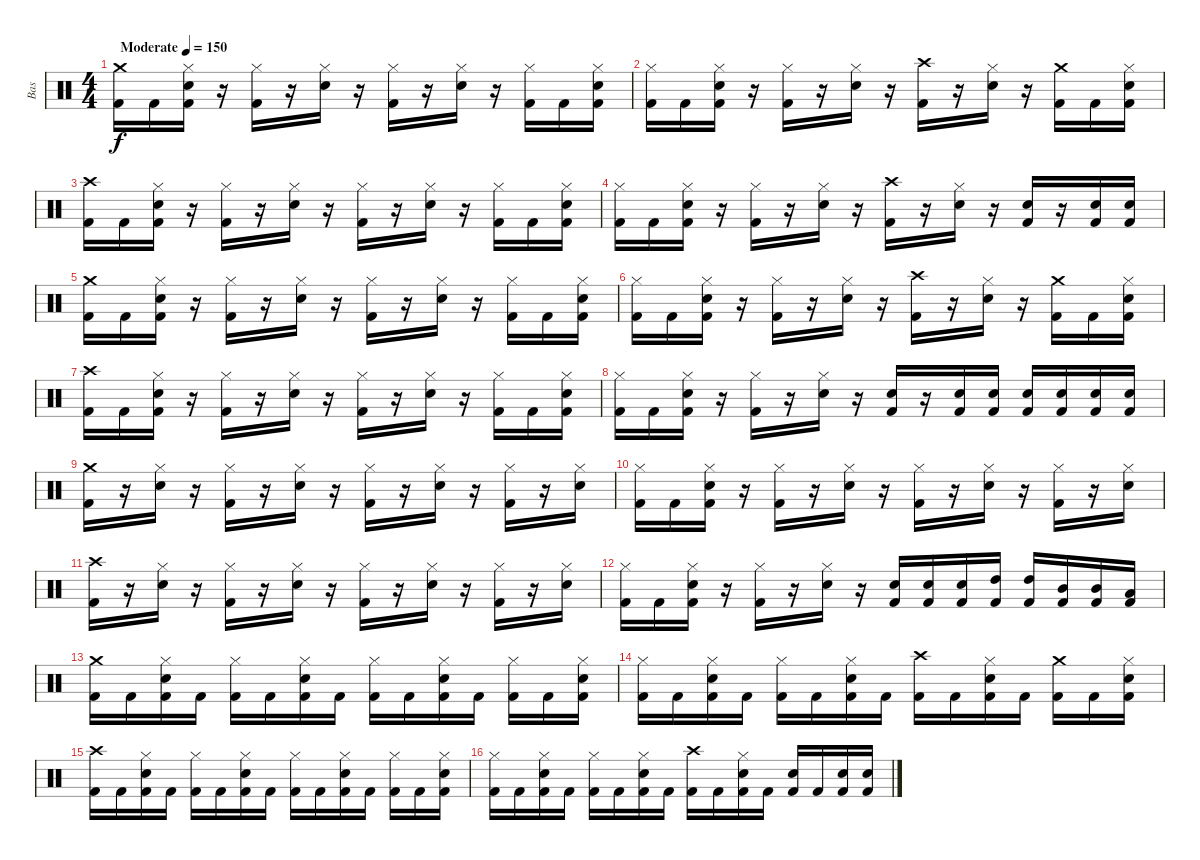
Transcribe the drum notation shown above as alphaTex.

\track ("Bas" "Bas") {instrument percussion}
\staff {score}
\articulation defaults
\ts (4 4)
\tempo (150 "Moderate")
\clef neutral
\ks c
("Crash medium (hit)" "Kick (hit) 2").16{dy f} "Kick (hit) 2".16 ("Hi-Hat (closed)" "Snare (hit) 2" "Kick (hit) 2").16 r.16 ("Hi-Hat (closed)" "Kick (hit) 2").16 r.16 ("Hi-Hat (closed)" "Snare (hit) 2").16 r.16 ("Hi-Hat (closed)" "Kick (hit) 2").16 r.16 ("Hi-Hat (closed)" "Snare (hit) 2").16 r.16 ("Hi-Hat (closed)" "Kick (hit) 2").16 "Kick (hit) 2".16 ("Hi-Hat (closed)" "Snare (hit) 2" "Kick (hit) 2").16 |
("Hi-Hat (closed)" "Kick (hit) 2").16 "Kick (hit) 2".16 ("Hi-Hat (closed)" "Snare (hit) 2" "Kick (hit) 2").16 r.16 ("Hi-Hat (closed)" "Kick (hit) 2").16 r.16 ("Hi-Hat (closed)" "Snare (hit) 2").16 r.16 ("Crash high (hit)" "Kick (hit) 2").16 r.16 ("Hi-Hat (closed)" "Snare (hit) 2").16 r.16 ("Crash medium (hit)" "Kick (hit) 2").16 "Kick (hit) 2".16 ("Hi-Hat (closed)" "Snare (hit) 2" "Kick (hit) 2").16 |
("Crash high (hit)" "Kick (hit) 2").16 "Kick (hit) 2".16 ("Hi-Hat (closed)" "Snare (hit) 2" "Kick (hit) 2").16 r.16 ("Hi-Hat (closed)" "Kick (hit) 2").16 r.16 ("Hi-Hat (closed)" "Snare (hit) 2").16 r.16 ("Hi-Hat (closed)" "Kick (hit) 2").16 r.16 ("Hi-Hat (closed)" "Snare (hit) 2").16 r.16 ("Hi-Hat (closed)" "Kick (hit) 2").16 "Kick (hit) 2".16 ("Hi-Hat (closed)" "Snare (hit) 2" "Kick (hit) 2").16 |
("Hi-Hat (closed)" "Kick (hit) 2").16 "Kick (hit) 2".16 ("Hi-Hat (closed)" "Snare (hit) 2" "Kick (hit) 2").16 r.16 ("Hi-Hat (closed)" "Kick (hit) 2").16 r.16 ("Hi-Hat (closed)" "Snare (hit) 2").16 r.16 ("Crash high (hit)" "Kick (hit) 2").16 r.16 ("Hi-Hat (closed)" "Snare (hit) 2").16 r.16 ("Snare (hit) 2" "Kick (hit) 2").16 r.16 ("Snare (hit) 2" "Kick (hit) 2").16 ("Snare (hit) 2" "Kick (hit) 2").16 |
("Crash medium (hit)" "Kick (hit) 2").16 "Kick (hit) 2".16 ("Hi-Hat (closed)" "Snare (hit) 2" "Kick (hit) 2").16 r.16 ("Hi-Hat (closed)" "Kick (hit) 2").16 r.16 ("Hi-Hat (closed)" "Snare (hit) 2").16 r.16 ("Hi-Hat (closed)" "Kick (hit) 2").16 r.16 ("Hi-Hat (closed)" "Snare (hit) 2").16 r.16 ("Hi-Hat (closed)" "Kick (hit) 2").16 "Kick (hit) 2".16 ("Hi-Hat (closed)" "Snare (hit) 2" "Kick (hit) 2").16 |
("Hi-Hat (closed)" "Kick (hit) 2").16 "Kick (hit) 2".16 ("Hi-Hat (closed)" "Snare (hit) 2" "Kick (hit) 2").16 r.16 ("Hi-Hat (closed)" "Kick (hit) 2").16 r.16 ("Hi-Hat (closed)" "Snare (hit) 2").16 r.16 ("Crash high (hit)" "Kick (hit) 2").16 r.16 ("Hi-Hat (closed)" "Snare (hit) 2").16 r.16 ("Crash medium (hit)" "Kick (hit) 2").16 "Kick (hit) 2".16 ("Hi-Hat (closed)" "Snare (hit) 2" "Kick (hit) 2").16 |
("Crash high (hit)" "Kick (hit) 2").16 "Kick (hit) 2".16 ("Hi-Hat (closed)" "Snare (hit) 2" "Kick (hit) 2").16 r.16 ("Hi-Hat (closed)" "Kick (hit) 2").16 r.16 ("Hi-Hat (closed)" "Snare (hit) 2").16 r.16 ("Hi-Hat (closed)" "Kick (hit) 2").16 r.16 ("Hi-Hat (closed)" "Snare (hit) 2").16 r.16 ("Hi-Hat (closed)" "Kick (hit) 2").16 "Kick (hit) 2".16 ("Hi-Hat (closed)" "Snare (hit) 2" "Kick (hit) 2").16 |
("Hi-Hat (closed)" "Kick (hit) 2").16 "Kick (hit) 2".16 ("Hi-Hat (closed)" "Snare (hit) 2" "Kick (hit) 2").16 r.16 ("Hi-Hat (closed)" "Kick (hit) 2").16 r.16 ("Hi-Hat (closed)" "Snare (hit) 2").16 r.16 ("Snare (hit) 2" "Kick (hit) 2").16 r.16 ("Snare (hit) 2" "Kick (hit) 2").16 ("Snare (hit) 2" "Kick (hit) 2").16 ("Snare (hit) 2" "Kick (hit) 2").16 ("Snare (hit) 2" "Kick (hit) 2").16 ("Snare (hit) 2" "Kick (hit) 2").16 ("Snare (hit) 2" "Kick (hit) 2").16 |
("Crash medium (hit)" "Kick (hit) 2").16 r.16 ("Hi-Hat (closed)" "Snare (hit) 2").16 r.16 ("Hi-Hat (closed)" "Kick (hit) 2").16 r.16 ("Hi-Hat (closed)" "Snare (hit) 2").16 r.16 ("Hi-Hat (closed)" "Kick (hit) 2").16 r.16 ("Hi-Hat (closed)" "Snare (hit) 2").16 r.16 ("Hi-Hat (closed)" "Kick (hit) 2").16 r.16 ("Hi-Hat (closed)" "Snare (hit) 2").16 |
("Hi-Hat (closed)" "Kick (hit) 2").16 "Kick (hit) 2".16 ("Hi-Hat (closed)" "Snare (hit) 2" "Kick (hit) 2").16 r.16 ("Hi-Hat (closed)" "Kick (hit) 2").16 r.16 ("Hi-Hat (closed)" "Snare (hit) 2").16 r.16 ("Hi-Hat (closed)" "Kick (hit) 2").16 r.16 ("Hi-Hat (closed)" "Snare (hit) 2").16 r.16 ("Hi-Hat (closed)" "Kick (hit) 2").16 r.16 ("Hi-Hat (closed)" "Snare (hit) 2").16 |
("Crash high (hit)" "Kick (hit) 2").16 r.16 ("Hi-Hat (closed)" "Snare (hit) 2").16 r.16 ("Hi-Hat (closed)" "Kick (hit) 2").16 r.16 ("Hi-Hat (closed)" "Snare (hit) 2").16 r.16 ("Hi-Hat (closed)" "Kick (hit) 2").16 r.16 ("Hi-Hat (closed)" "Snare (hit) 2").16 r.16 ("Hi-Hat (closed)" "Kick (hit) 2").16 r.16 ("Hi-Hat (closed)" "Snare (hit) 2").16 |
("Hi-Hat (closed)" "Kick (hit) 2").16 "Kick (hit) 2".16 ("Hi-Hat (closed)" "Snare (hit) 2" "Kick (hit) 2").16 r.16 ("Hi-Hat (closed)" "Kick (hit) 2").16 r.16 ("Hi-Hat (closed)" "Snare (hit) 2").16 r.16 ("Snare (hit) 2" "Kick (hit) 2").16 ("Snare (hit) 2" "Kick (hit) 2").16 ("Snare (hit) 2" "Kick (hit) 2").16 ("High Tom (hit)" "Kick (hit) 2").16 ("High Tom (hit)" "Kick (hit) 2").16 ("Mid Tom (hit)" "Kick (hit) 2").16 ("Mid Tom (hit)" "Kick (hit) 2").16 ("Low Tom (hit)" "Kick (hit) 2").16 |
("Crash medium (hit)" "Kick (hit) 2").16 "Kick (hit) 2".16 ("Hi-Hat (closed)" "Snare (hit) 2" "Kick (hit) 2").16 "Kick (hit) 2".16 ("Hi-Hat (closed)" "Kick (hit) 2").16 "Kick (hit) 2".16 ("Hi-Hat (closed)" "Snare (hit) 2" "Kick (hit) 2").16 "Kick (hit) 2".16 ("Hi-Hat (closed)" "Kick (hit) 2").16 "Kick (hit) 2".16 ("Hi-Hat (closed)" "Snare (hit) 2" "Kick (hit) 2").16 "Kick (hit) 2".16 ("Hi-Hat (closed)" "Kick (hit) 2").16 "Kick (hit) 2".16 ("Hi-Hat (closed)" "Snare (hit) 2" "Kick (hit) 2").16 |
("Hi-Hat (closed)" "Kick (hit) 2").16 "Kick (hit) 2".16 ("Hi-Hat (closed)" "Snare (hit) 2" "Kick (hit) 2").16 "Kick (hit) 2".16 ("Hi-Hat (closed)" "Kick (hit) 2").16 "Kick (hit) 2".16 ("Hi-Hat (closed)" "Snare (hit) 2" "Kick (hit) 2").16 "Kick (hit) 2".16 ("Crash high (hit)" "Kick (hit) 2").16 "Kick (hit) 2".16 ("Hi-Hat (closed)" "Snare (hit) 2" "Kick (hit) 2").16 "Kick (hit) 2".16 ("Crash medium (hit)" "Kick (hit) 2").16 "Kick (hit) 2".16 ("Hi-Hat (closed)" "Snare (hit) 2" "Kick (hit) 2").16 |
("Crash high (hit)" "Kick (hit) 2").16 "Kick (hit) 2".16 ("Hi-Hat (closed)" "Snare (hit) 2" "Kick (hit) 2").16 "Kick (hit) 2".16 ("Hi-Hat (closed)" "Kick (hit) 2").16 "Kick (hit) 2".16 ("Hi-Hat (closed)" "Snare (hit) 2" "Kick (hit) 2").16 "Kick (hit) 2".16 ("Hi-Hat (closed)" "Kick (hit) 2").16 "Kick (hit) 2".16 ("Hi-Hat (closed)" "Snare (hit) 2" "Kick (hit) 2").16 "Kick (hit) 2".16 ("Hi-Hat (closed)" "Kick (hit) 2").16 "Kick (hit) 2".16 ("Hi-Hat (closed)" "Snare (hit) 2" "Kick (hit) 2").16 |
("Hi-Hat (closed)" "Kick (hit) 2").16 "Kick (hit) 2".16 ("Hi-Hat (closed)" "Snare (hit) 2" "Kick (hit) 2").16 "Kick (hit) 2".16 ("Hi-Hat (closed)" "Kick (hit) 2").16 "Kick (hit) 2".16 ("Hi-Hat (closed)" "Snare (hit) 2" "Kick (hit) 2").16 "Kick (hit) 2".16 ("Crash high (hit)" "Kick (hit) 2").16 "Kick (hit) 2".16 ("Hi-Hat (closed)" "Snare (hit) 2" "Kick (hit) 2").16 "Kick (hit) 2".16 ("Snare (hit) 2" "Kick (hit) 2").16 "Kick (hit) 2".16 ("Snare (hit) 2" "Kick (hit) 2").16 ("Snare (hit) 2" "Kick (hit) 2").16
